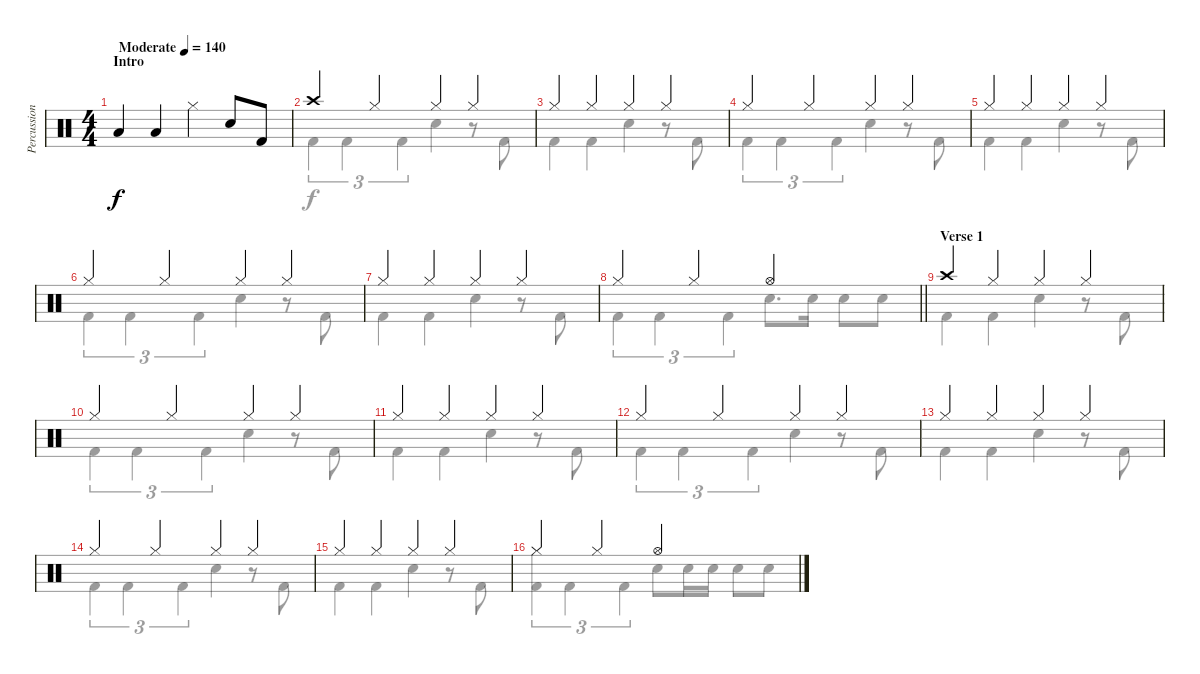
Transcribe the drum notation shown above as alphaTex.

\track ("Percussion (LP III)" "Percussion") {instrument percussion}
\staff {score}
\articulation defaults
\voice
\ts (4 4)
\section ("" "Intro")
\tempo (140 "Moderate")
\clef neutral
\ks c "Low Tom (hit)".4{dy f} "Low Tom (hit)".4 "Hi-Hat (closed)".4 "Snare (hit) 2".8 "Kick (hit) 2".8
|
"Crash high (hit)".4 "Hi-Hat (closed)".4 "Hi-Hat (closed)".4 "Hi-Hat (closed)".4 |
"Hi-Hat (closed)".4 "Hi-Hat (closed)".4 "Hi-Hat (closed)".4 "Hi-Hat (closed)".4 |
"Hi-Hat (closed)".4 "Hi-Hat (closed)".4 "Hi-Hat (closed)".4 "Hi-Hat (closed)".4 |
"Hi-Hat (closed)".4 "Hi-Hat (closed)".4 "Hi-Hat (closed)".4 "Hi-Hat (closed)".4 |
"Hi-Hat (closed)".4 "Hi-Hat (closed)".4 "Hi-Hat (closed)".4 "Hi-Hat (closed)".4 |
"Hi-Hat (closed)".4 "Hi-Hat (closed)".4 "Hi-Hat (closed)".4 "Hi-Hat (closed)".4 |
\barLineRight lightlight "Hi-Hat (closed)".4 "Hi-Hat (closed)".4 "Hi-Hat (open)".2
|
\section ("" "Verse 1")
"Crash high (hit)".4 "Hi-Hat (closed)".4 "Hi-Hat (closed)".4 "Hi-Hat (closed)".4 |
"Hi-Hat (closed)".4 "Hi-Hat (closed)".4 "Hi-Hat (closed)".4 "Hi-Hat (closed)".4 |
"Hi-Hat (closed)".4 "Hi-Hat (closed)".4 "Hi-Hat (closed)".4 "Hi-Hat (closed)".4 |
"Hi-Hat (closed)".4 "Hi-Hat (closed)".4 "Hi-Hat (closed)".4 "Hi-Hat (closed)".4 |
"Hi-Hat (closed)".4 "Hi-Hat (closed)".4 "Hi-Hat (closed)".4 "Hi-Hat (closed)".4 |
"Hi-Hat (closed)".4 "Hi-Hat (closed)".4 "Hi-Hat (closed)".4 "Hi-Hat (closed)".4 |
"Hi-Hat (closed)".4 "Hi-Hat (closed)".4 "Hi-Hat (closed)".4 "Hi-Hat (closed)".4 |
"Hi-Hat (closed)".4 "Hi-Hat (closed)".4 "Hi-Hat (open)".2
\voice
\clef neutral
\ottava regular
\simile none
\ks c
|
"Kick (hit) 2".4{tu (3 2)} "Kick (hit) 2".4{tu (3 2)} "Kick (hit) 2".4{tu (3 2)} "Snare (hit) 2".4 r.8 "Kick (hit) 2".8 |
"Kick (hit) 2".4 "Kick (hit) 2".4 "Snare (hit) 2".4 r.8 "Kick (hit) 2".8 |
"Kick (hit) 2".4{tu (3 2)} "Kick (hit) 2".4{tu (3 2)} "Kick (hit) 2".4{tu (3 2)} "Snare (hit) 2".4 r.8 "Kick (hit) 2".8 |
"Kick (hit) 2".4 "Kick (hit) 2".4 "Snare (hit) 2".4 r.8 "Kick (hit) 2".8 |
"Kick (hit) 2".4{tu (3 2)} "Kick (hit) 2".4{tu (3 2)} "Kick (hit) 2".4{tu (3 2)} "Snare (hit) 2".4 r.8 "Kick (hit) 2".8 |
"Kick (hit) 2".4 "Kick (hit) 2".4 "Snare (hit) 2".4 r.8 "Kick (hit) 2".8 |
\barLineRight lightlight "Kick (hit) 2".4{tu (3 2)} "Kick (hit) 2".4{tu (3 2)} "Kick (hit) 2".4{tu (3 2)} "Snare (hit) 2".8{d} "Snare (hit) 2".16 "Snare (hit) 2".8 "Snare (hit) 2".8
|
"Kick (hit) 2".4 "Kick (hit) 2".4 "Snare (hit) 2".4 r.8 "Kick (hit) 2".8 |
"Kick (hit) 2".4{tu (3 2)} "Kick (hit) 2".4{tu (3 2)} "Kick (hit) 2".4{tu (3 2)} "Snare (hit) 2".4 r.8 "Kick (hit) 2".8 |
"Kick (hit) 2".4 "Kick (hit) 2".4 "Snare (hit) 2".4 r.8 "Kick (hit) 2".8 |
"Kick (hit) 2".4{tu (3 2)} "Kick (hit) 2".4{tu (3 2)} "Kick (hit) 2".4{tu (3 2)} "Snare (hit) 2".4 r.8 "Kick (hit) 2".8 |
"Kick (hit) 2".4 "Kick (hit) 2".4 "Snare (hit) 2".4 r.8 "Kick (hit) 2".8 |
"Kick (hit) 2".4{tu (3 2)} "Kick (hit) 2".4{tu (3 2)} "Kick (hit) 2".4{tu (3 2)} "Snare (hit) 2".4 r.8 "Kick (hit) 2".8 |
"Kick (hit) 2".4 "Kick (hit) 2".4 "Snare (hit) 2".4 r.8 "Kick (hit) 2".8 |
("Hi-Hat (closed)" "Kick (hit) 2").4{tu (3 2)} "Kick (hit) 2".4{tu (3 2)} "Kick (hit) 2".4{tu (3 2)} "Snare (hit) 2".8 "Snare (hit) 2".16 "Snare (hit) 2".16 "Snare (hit) 2".8 "Snare (hit) 2".8
